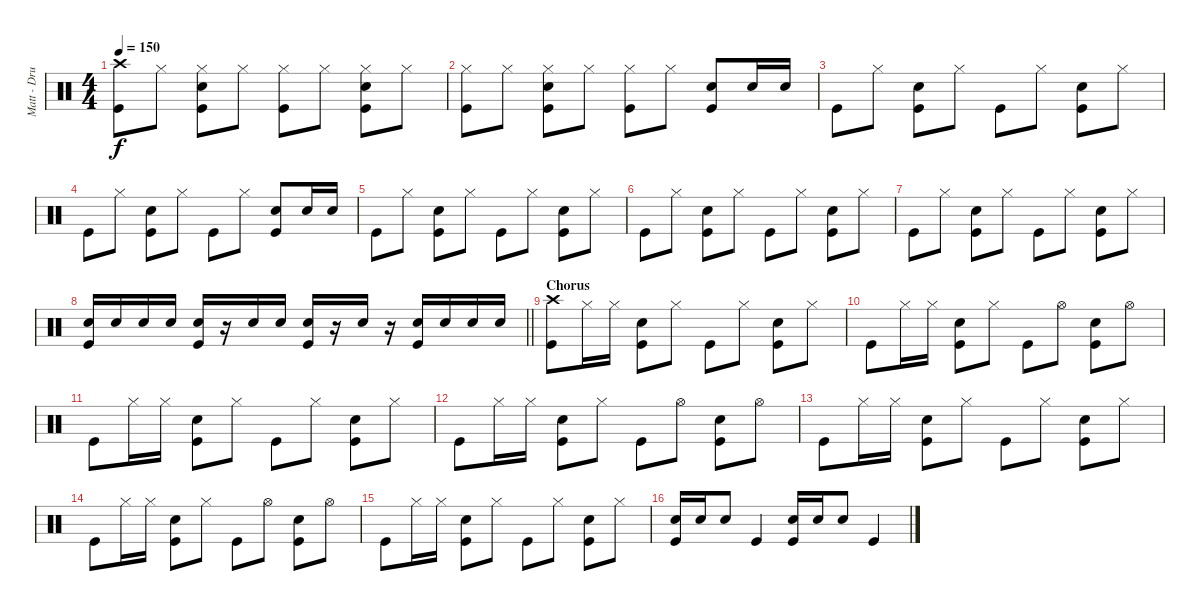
\track ("Matt - Drums" "Matt - Dru") {instrument percussion}
\staff {score}
\articulation defaults
\ts (4 4)
\tempo 150
\clef neutral
\ks c
("Crash high (hit)" "Kick (hit)").8{dy f} "Hi-Hat (closed)".8 ("Hi-Hat (closed)" "Electric Snare (hit)" "Kick (hit)").8 "Hi-Hat (closed)".8 ("Hi-Hat (closed)" "Kick (hit)").8 "Hi-Hat (closed)".8 ("Hi-Hat (closed)" "Electric Snare (hit)" "Kick (hit)").8 "Hi-Hat (closed)".8 |
("Hi-Hat (closed)" "Kick (hit)").8 "Hi-Hat (closed)".8 ("Hi-Hat (closed)" "Electric Snare (hit)" "Kick (hit)").8 "Hi-Hat (closed)".8 ("Hi-Hat (closed)" "Kick (hit)").8 "Hi-Hat (closed)".8 ("Electric Snare (hit)" "Kick (hit)").8 "Electric Snare (hit)".16 "Electric Snare (hit)".16 |
"Kick (hit)".8 "Hi-Hat (closed)".8 ("Electric Snare (hit)" "Kick (hit)").8 "Hi-Hat (closed)".8 "Kick (hit)".8 "Hi-Hat (closed)".8 ("Electric Snare (hit)" "Kick (hit)").8 "Hi-Hat (closed)".8 |
"Kick (hit)".8 "Hi-Hat (closed)".8 ("Electric Snare (hit)" "Kick (hit)").8 "Hi-Hat (closed)".8 "Kick (hit)".8 "Hi-Hat (closed)".8 ("Electric Snare (hit)" "Kick (hit)").8 "Electric Snare (hit)".16 "Electric Snare (hit)".16 |
"Kick (hit)".8 "Hi-Hat (closed)".8 ("Electric Snare (hit)" "Kick (hit)").8 "Hi-Hat (closed)".8 "Kick (hit)".8 "Hi-Hat (closed)".8 ("Electric Snare (hit)" "Kick (hit)").8 "Hi-Hat (closed)".8 |
"Kick (hit)".8 "Hi-Hat (closed)".8 ("Electric Snare (hit)" "Kick (hit)").8 "Hi-Hat (closed)".8 "Kick (hit)".8 "Hi-Hat (closed)".8 ("Electric Snare (hit)" "Kick (hit)").8 "Hi-Hat (closed)".8 |
"Kick (hit)".8 "Hi-Hat (closed)".8 ("Electric Snare (hit)" "Kick (hit)").8 "Hi-Hat (closed)".8 "Kick (hit)".8 "Hi-Hat (closed)".8 ("Electric Snare (hit)" "Kick (hit)").8 "Hi-Hat (closed)".8 |
\barLineRight lightlight
("Electric Snare (hit)" "Kick (hit)").16 "Electric Snare (hit)".16 "Electric Snare (hit)".16 "Electric Snare (hit)".16 ("Electric Snare (hit)" "Kick (hit)").16 r.16 "Electric Snare (hit)".16 "Electric Snare (hit)".16 ("Electric Snare (hit)" "Kick (hit)").16 r.16 "Electric Snare (hit)".16 r.16 ("Electric Snare (hit)" "Kick (hit)").16 "Electric Snare (hit)".16 "Electric Snare (hit)".16 "Electric Snare (hit)".16 |
\section ("" "Chorus")
("Crash high (hit)" "Kick (hit)").8 "Hi-Hat (closed)".16 "Hi-Hat (closed)".16 ("Electric Snare (hit)" "Kick (hit)").8 "Hi-Hat (closed)".8 "Kick (hit)".8 "Hi-Hat (closed)".8 ("Electric Snare (hit)" "Kick (hit)").8 "Hi-Hat (closed)".8 |
"Kick (hit)".8 "Hi-Hat (closed)".16 "Hi-Hat (closed)".16 ("Electric Snare (hit)" "Kick (hit)").8 "Hi-Hat (closed)".8 "Kick (hit)".8 "Hi-Hat (open)".8 ("Electric Snare (hit)" "Kick (hit)").8 "Hi-Hat (open)".8 |
"Kick (hit)".8 "Hi-Hat (closed)".16 "Hi-Hat (closed)".16 ("Electric Snare (hit)" "Kick (hit)").8 "Hi-Hat (closed)".8 "Kick (hit)".8 "Hi-Hat (closed)".8 ("Electric Snare (hit)" "Kick (hit)").8 "Hi-Hat (closed)".8 |
"Kick (hit)".8 "Hi-Hat (closed)".16 "Hi-Hat (closed)".16 ("Electric Snare (hit)" "Kick (hit)").8 "Hi-Hat (closed)".8 "Kick (hit)".8 "Hi-Hat (open)".8 ("Electric Snare (hit)" "Kick (hit)").8 "Hi-Hat (open)".8 |
"Kick (hit)".8 "Hi-Hat (closed)".16 "Hi-Hat (closed)".16 ("Electric Snare (hit)" "Kick (hit)").8 "Hi-Hat (closed)".8 "Kick (hit)".8 "Hi-Hat (closed)".8 ("Electric Snare (hit)" "Kick (hit)").8 "Hi-Hat (closed)".8 |
"Kick (hit)".8 "Hi-Hat (closed)".16 "Hi-Hat (closed)".16 ("Electric Snare (hit)" "Kick (hit)").8 "Hi-Hat (closed)".8 "Kick (hit)".8 "Hi-Hat (open)".8 ("Electric Snare (hit)" "Kick (hit)").8 "Hi-Hat (open)".8 |
"Kick (hit)".8 "Hi-Hat (closed)".16 "Hi-Hat (closed)".16 ("Electric Snare (hit)" "Kick (hit)").8 "Hi-Hat (closed)".8 "Kick (hit)".8 "Hi-Hat (closed)".8 ("Electric Snare (hit)" "Kick (hit)").8 "Hi-Hat (closed)".8 |
("Electric Snare (hit)" "Kick (hit)").16 "Electric Snare (hit)".16 "Electric Snare (hit)".8 "Kick (hit)".4 ("Electric Snare (hit)" "Kick (hit)").16 "Electric Snare (hit)".16 "Electric Snare (hit)".8 "Kick (hit)".4
